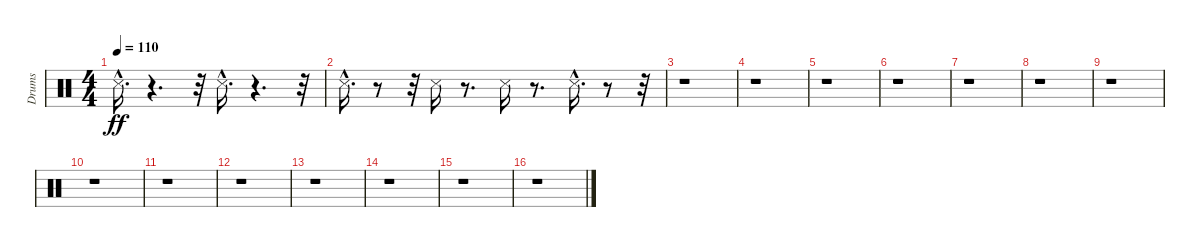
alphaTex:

\track ("Drums" "Drums") {instrument percussion}
\staff {score}
\articulation defaults
\ts (4 4)
\tempo 110
\clef neutral
\ks c "Snare (side stick) 3"{hac}.16{d dy ff}
r.4{d} r.32 "Snare (side stick) 3"{hac}.16{d} r.4{d} r.32 |
"Snare (side stick) 3"{hac}.16{d} r.8 r.32 "Snare (side stick) 3".16 r.8{d} "Snare (side stick) 3".16 r.8{d} "Snare (side stick) 3"{hac}.16{d} r.8 r.32 |
r.1 |
r.1 |
r.1 |
r.1 |
r.1 |
r.1 |
r.1 |
r.1 |
r.1 |
r.1 |
r.1 |
r.1 |
r.1 |
r.1
